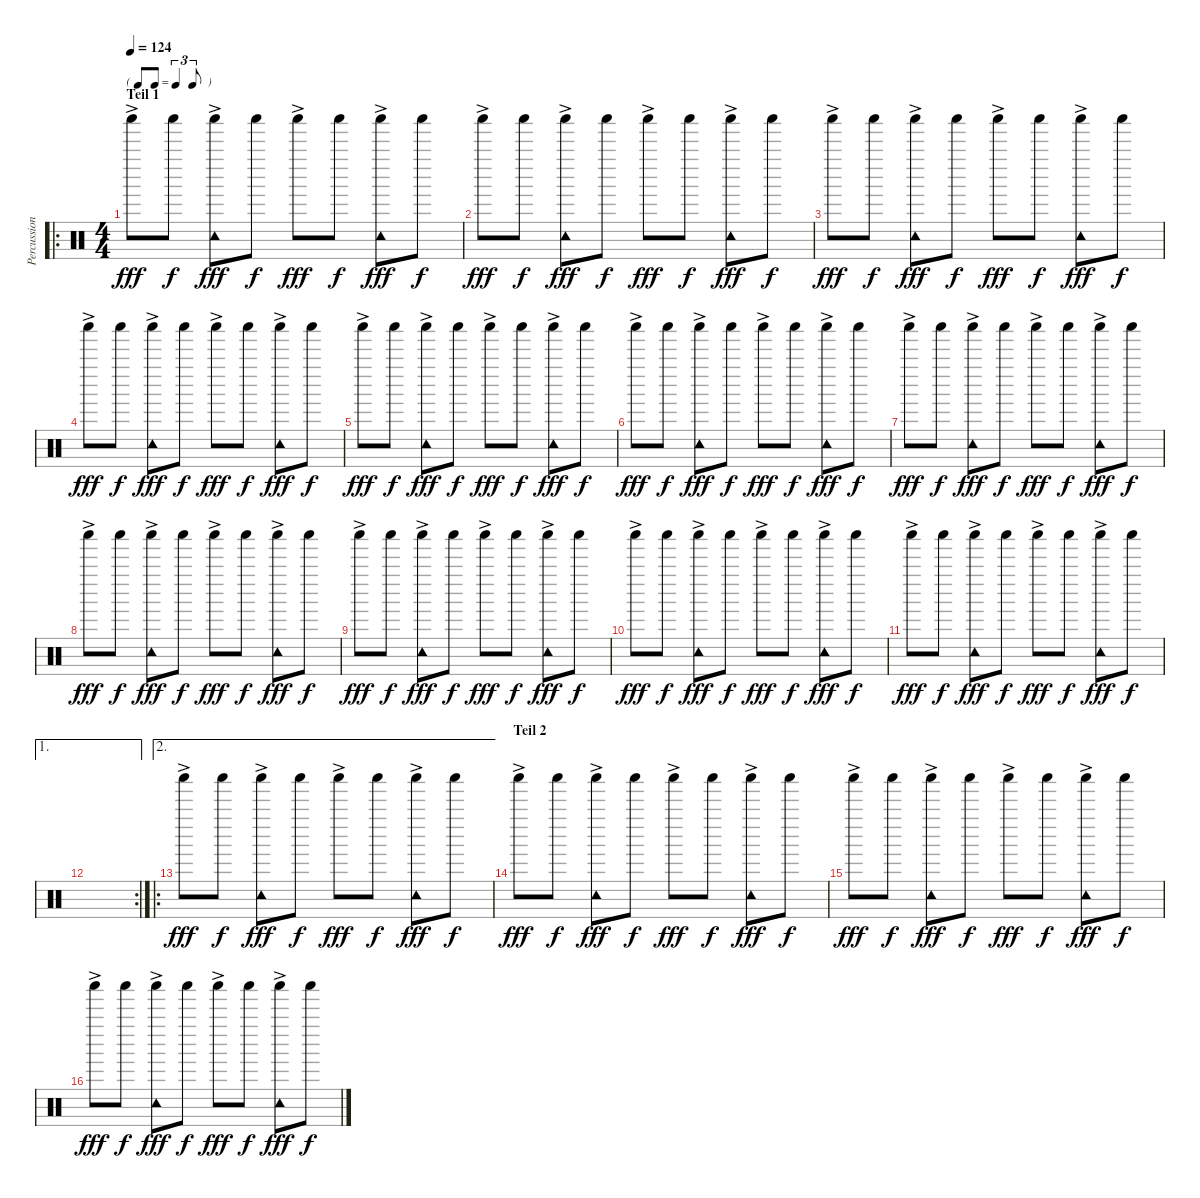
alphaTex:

\track ("Percussion" "Percussion") {instrument percussion}
\staff {score}
\articulation defaults
\ro
\ts (4 4)
\tf triplet8th
\section ("" "Teil 1")
\tempo 124
\clef neutral
\ks c "Shaker (hit)"{ac}.8{dy fff} "Shaker (hit)".8{dy f}
("Tambourine (hit)" "Shaker (hit)"{ac}).8{dy fff} "Shaker (hit)".8{dy f} "Shaker (hit)"{ac}.8{dy fff} "Shaker (hit)".8{dy f} ("Tambourine (hit)" "Shaker (hit)"{ac}).8{dy fff} "Shaker (hit)".8{dy f} |
"Shaker (hit)"{ac}.8{dy fff} "Shaker (hit)".8{dy f} ("Tambourine (hit)" "Shaker (hit)"{ac}).8{dy fff} "Shaker (hit)".8{dy f} "Shaker (hit)"{ac}.8{dy fff} "Shaker (hit)".8{dy f} ("Tambourine (hit)" "Shaker (hit)"{ac}).8{dy fff} "Shaker (hit)".8{dy f} |
"Shaker (hit)"{ac}.8{dy fff} "Shaker (hit)".8{dy f} ("Tambourine (hit)" "Shaker (hit)"{ac}).8{dy fff} "Shaker (hit)".8{dy f} "Shaker (hit)"{ac}.8{dy fff} "Shaker (hit)".8{dy f} ("Tambourine (hit)" "Shaker (hit)"{ac}).8{dy fff} "Shaker (hit)".8{dy f} |
"Shaker (hit)"{ac}.8{dy fff} "Shaker (hit)".8{dy f} ("Tambourine (hit)" "Shaker (hit)"{ac}).8{dy fff} "Shaker (hit)".8{dy f} "Shaker (hit)"{ac}.8{dy fff} "Shaker (hit)".8{dy f} ("Tambourine (hit)" "Shaker (hit)"{ac}).8{dy fff} "Shaker (hit)".8{dy f} |
"Shaker (hit)"{ac}.8{dy fff} "Shaker (hit)".8{dy f} ("Tambourine (hit)" "Shaker (hit)"{ac}).8{dy fff} "Shaker (hit)".8{dy f} "Shaker (hit)"{ac}.8{dy fff} "Shaker (hit)".8{dy f} ("Tambourine (hit)" "Shaker (hit)"{ac}).8{dy fff} "Shaker (hit)".8{dy f} |
"Shaker (hit)"{ac}.8{dy fff} "Shaker (hit)".8{dy f} ("Tambourine (hit)" "Shaker (hit)"{ac}).8{dy fff} "Shaker (hit)".8{dy f} "Shaker (hit)"{ac}.8{dy fff} "Shaker (hit)".8{dy f} ("Tambourine (hit)" "Shaker (hit)"{ac}).8{dy fff} "Shaker (hit)".8{dy f} |
"Shaker (hit)"{ac}.8{dy fff} "Shaker (hit)".8{dy f} ("Tambourine (hit)" "Shaker (hit)"{ac}).8{dy fff} "Shaker (hit)".8{dy f} "Shaker (hit)"{ac}.8{dy fff} "Shaker (hit)".8{dy f} ("Tambourine (hit)" "Shaker (hit)"{ac}).8{dy fff} "Shaker (hit)".8{dy f} |
"Shaker (hit)"{ac}.8{dy fff} "Shaker (hit)".8{dy f} ("Tambourine (hit)" "Shaker (hit)"{ac}).8{dy fff} "Shaker (hit)".8{dy f} "Shaker (hit)"{ac}.8{dy fff} "Shaker (hit)".8{dy f} ("Tambourine (hit)" "Shaker (hit)"{ac}).8{dy fff} "Shaker (hit)".8{dy f} |
"Shaker (hit)"{ac}.8{dy fff} "Shaker (hit)".8{dy f} ("Tambourine (hit)" "Shaker (hit)"{ac}).8{dy fff} "Shaker (hit)".8{dy f} "Shaker (hit)"{ac}.8{dy fff} "Shaker (hit)".8{dy f} ("Tambourine (hit)" "Shaker (hit)"{ac}).8{dy fff} "Shaker (hit)".8{dy f} |
"Shaker (hit)"{ac}.8{dy fff} "Shaker (hit)".8{dy f} ("Tambourine (hit)" "Shaker (hit)"{ac}).8{dy fff} "Shaker (hit)".8{dy f} "Shaker (hit)"{ac}.8{dy fff} "Shaker (hit)".8{dy f} ("Tambourine (hit)" "Shaker (hit)"{ac}).8{dy fff} "Shaker (hit)".8{dy f} |
"Shaker (hit)"{ac}.8{dy fff} "Shaker (hit)".8{dy f} ("Tambourine (hit)" "Shaker (hit)"{ac}).8{dy fff} "Shaker (hit)".8{dy f} "Shaker (hit)"{ac}.8{dy fff} "Shaker (hit)".8{dy f} ("Tambourine (hit)" "Shaker (hit)"{ac}).8{dy fff} "Shaker (hit)".8{dy f} |
\ae 1
\rc 2
|
\ae 2
\ro "Shaker (hit)"{ac}.8{dy fff} "Shaker (hit)".8{dy f}
("Tambourine (hit)" "Shaker (hit)"{ac}).8{dy fff} "Shaker (hit)".8{dy f} "Shaker (hit)"{ac}.8{dy fff} "Shaker (hit)".8{dy f} ("Tambourine (hit)" "Shaker (hit)"{ac}).8{dy fff} "Shaker (hit)".8{dy f} |
\section ("" "Teil 2")
"Shaker (hit)"{ac}.8{dy fff} "Shaker (hit)".8{dy f} ("Tambourine (hit)" "Shaker (hit)"{ac}).8{dy fff} "Shaker (hit)".8{dy f} "Shaker (hit)"{ac}.8{dy fff} "Shaker (hit)".8{dy f} ("Tambourine (hit)" "Shaker (hit)"{ac}).8{dy fff} "Shaker (hit)".8{dy f} |
"Shaker (hit)"{ac}.8{dy fff} "Shaker (hit)".8{dy f} ("Tambourine (hit)" "Shaker (hit)"{ac}).8{dy fff} "Shaker (hit)".8{dy f} "Shaker (hit)"{ac}.8{dy fff} "Shaker (hit)".8{dy f} ("Tambourine (hit)" "Shaker (hit)"{ac}).8{dy fff} "Shaker (hit)".8{dy f} |
"Shaker (hit)"{ac}.8{dy fff} "Shaker (hit)".8{dy f} ("Tambourine (hit)" "Shaker (hit)"{ac}).8{dy fff} "Shaker (hit)".8{dy f} "Shaker (hit)"{ac}.8{dy fff} "Shaker (hit)".8{dy f} ("Tambourine (hit)" "Shaker (hit)"{ac}).8{dy fff} "Shaker (hit)".8{dy f}
